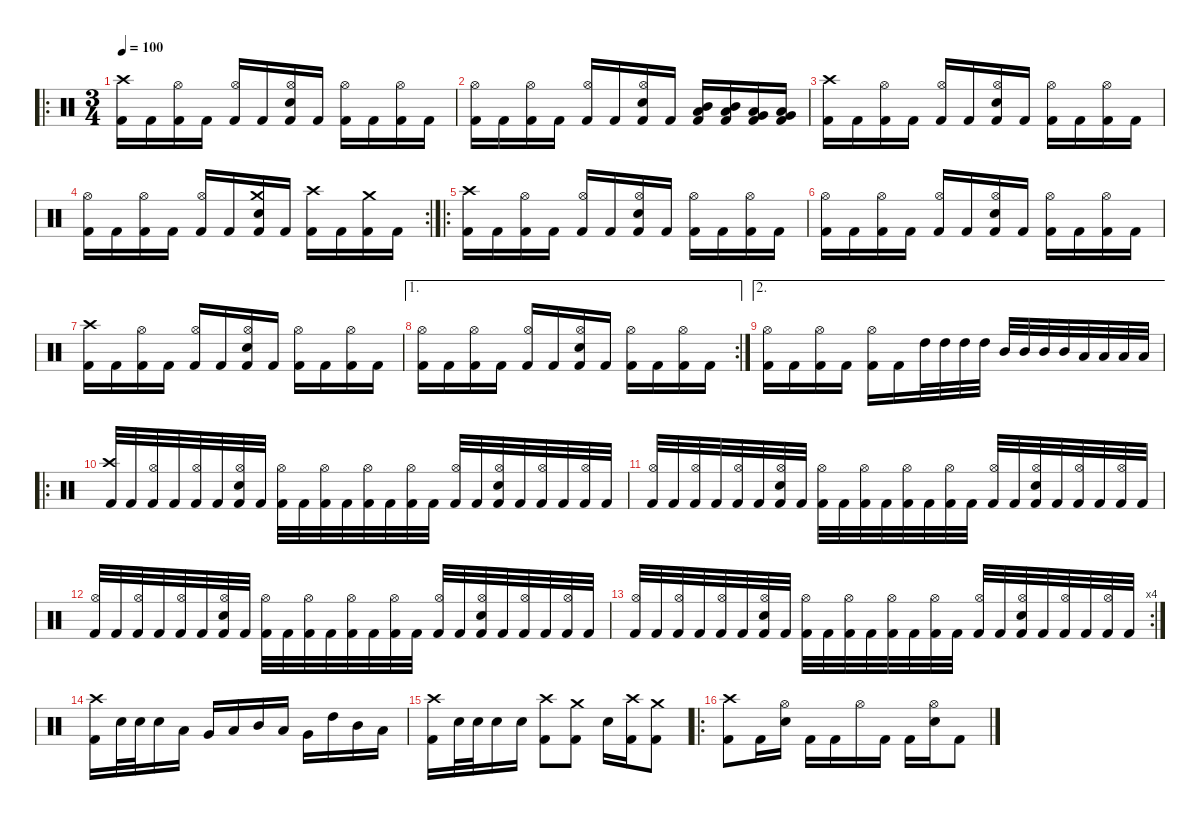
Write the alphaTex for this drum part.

\defaultSystemsLayout 4
\hideDynamics
\bracketExtendMode nobrackets
\singleTrackTrackNamePolicy hidden
\multiTrackTrackNamePolicy hidden
\firstSystemTrackNameMode fullname
\firstSystemTrackNameOrientation horizontal
\otherSystemsTrackNameOrientation horizontal
\track ("Drums" "drm.") {instrument percussion}
\staff {score}
\articulation defaults
\ro
\ts (3 4)
\beaming (8 2 2 2)
\tempo 100
\clef neutral
\ks c
("Crash high (hit)" "Kick (hit) 2").16{dy f beam Down} "Kick (hit) 2".16{beam Down} ("Hi-Hat (open)" "Kick (hit) 2").16{dy mp beam Down} "Kick (hit) 2".16{dy f beam Down} ("Hi-Hat (open)" "Kick (hit) 2").16{dy mp beam Up} "Kick (hit) 2".16{dy f beam Up} ("Hi-Hat (open)" "Snare (hit) 2" "Kick (hit) 2").16{dy mp beam Up} "Kick (hit) 2".16{dy f beam Up} ("Hi-Hat (open)" "Kick (hit) 2").16{dy mp beam Down} "Kick (hit) 2".16{dy f beam Down} ("Hi-Hat (open)" "Kick (hit) 2").16{dy mp beam Down} "Kick (hit) 2".16{dy f beam Down} |
("Hi-Hat (open)" "Kick (hit) 2").16{dy mp beam Down} "Kick (hit) 2".16{dy f beam Down} ("Hi-Hat (open)" "Kick (hit) 2").16{dy mp beam Down} "Kick (hit) 2".16{dy f beam Down} ("Hi-Hat (open)" "Kick (hit) 2").16{dy mp beam Up} "Kick (hit) 2".16{dy f beam Up} ("Hi-Hat (open)" "Snare (hit) 2" "Kick (hit) 2").16{dy mp beam Up} "Kick (hit) 2".16{dy f beam Up} ("Mid Tom (hit)" "Low Tom (hit)" "Kick (hit) 2").16{beam Up} ("Mid Tom (hit)" "Low Tom (hit)" "Kick (hit) 2").16{beam Up} ("Low Tom (hit)" "Very Low Tom (hit)" "Kick (hit) 2").16{beam Up} ("Very Low Tom (hit)" "Low Floor Tom (hit)" "Kick (hit) 2").16{beam Up} |
("Crash high (hit)" "Kick (hit) 2").16{beam Down} "Kick (hit) 2".16{beam Down} ("Hi-Hat (open)" "Kick (hit) 2").16{dy mp beam Down} "Kick (hit) 2".16{dy f beam Down} ("Hi-Hat (open)" "Kick (hit) 2").16{dy mp beam Up} "Kick (hit) 2".16{dy f beam Up} ("Hi-Hat (open)" "Snare (hit) 2" "Kick (hit) 2").16{dy mp beam Up} "Kick (hit) 2".16{dy f beam Up} ("Hi-Hat (open)" "Kick (hit) 2").16{dy mp beam Down} "Kick (hit) 2".16{dy f beam Down} ("Hi-Hat (open)" "Kick (hit) 2").16{dy mp beam Down} "Kick (hit) 2".16{dy f beam Down} |
\rc 2
("Hi-Hat (open)" "Kick (hit) 2").16{dy mp beam Down} "Kick (hit) 2".16{dy f beam Down} ("Hi-Hat (open)" "Kick (hit) 2").16{dy mp beam Down} "Kick (hit) 2".16{dy f beam Down} ("Hi-Hat (open)" "Kick (hit) 2").16{dy mp beam Up} "Kick (hit) 2".16{dy f beam Up} ("Crash medium (hit)" "Snare (hit) 2" "Kick (hit) 2").16{beam Up} "Kick (hit) 2".16{beam Up} ("Crash high (hit)" "Kick (hit) 2").16{beam Down} "Kick (hit) 2".16{beam Down} ("Crash medium (hit)" "Kick (hit) 2").16{beam Down} "Kick (hit) 2".16{beam Down} |
\ro
("Crash high (hit)" "Kick (hit) 2").16{beam Down} "Kick (hit) 2".16{beam Down} ("Hi-Hat (open)" "Kick (hit) 2").16{dy mp beam Down} "Kick (hit) 2".16{dy f beam Down} ("Hi-Hat (open)" "Kick (hit) 2").16{dy mp beam Up} "Kick (hit) 2".16{dy f beam Up} ("Hi-Hat (open)" "Snare (hit) 2" "Kick (hit) 2").16{dy mp beam Up} "Kick (hit) 2".16{dy f beam Up} ("Hi-Hat (open)" "Kick (hit) 2").16{dy mp beam Down} "Kick (hit) 2".16{dy f beam Down} ("Hi-Hat (open)" "Kick (hit) 2").16{dy mp beam Down} "Kick (hit) 2".16{dy f beam Down} |
("Hi-Hat (open)" "Kick (hit) 2").16{dy mp beam Down} "Kick (hit) 2".16{dy f beam Down} ("Hi-Hat (open)" "Kick (hit) 2").16{dy mp beam Down} "Kick (hit) 2".16{dy f beam Down} ("Hi-Hat (open)" "Kick (hit) 2").16{dy mp beam Up} "Kick (hit) 2".16{dy f beam Up} ("Hi-Hat (open)" "Snare (hit) 2" "Kick (hit) 2").16{dy mp beam Up} "Kick (hit) 2".16{dy f beam Up} ("Hi-Hat (open)" "Kick (hit) 2").16{dy mp beam Down} "Kick (hit) 2".16{dy f beam Down} ("Hi-Hat (open)" "Kick (hit) 2").16{dy mp beam Down} "Kick (hit) 2".16{dy f beam Down} |
("Crash high (hit)" "Kick (hit) 2").16{beam Down} "Kick (hit) 2".16{beam Down} ("Hi-Hat (open)" "Kick (hit) 2").16{dy mp beam Down} "Kick (hit) 2".16{dy f beam Down} ("Hi-Hat (open)" "Kick (hit) 2").16{dy mp beam Up} "Kick (hit) 2".16{dy f beam Up} ("Hi-Hat (open)" "Snare (hit) 2" "Kick (hit) 2").16{dy mp beam Up} "Kick (hit) 2".16{dy f beam Up} ("Hi-Hat (open)" "Kick (hit) 2").16{dy mp beam Down} "Kick (hit) 2".16{dy f beam Down} ("Hi-Hat (open)" "Kick (hit) 2").16{dy mp beam Down} "Kick (hit) 2".16{dy f beam Down} |
\ae 1
\rc 2
("Hi-Hat (open)" "Kick (hit) 2").16{dy mp beam Down} "Kick (hit) 2".16{dy f beam Down} ("Hi-Hat (open)" "Kick (hit) 2").16{dy mp beam Down} "Kick (hit) 2".16{dy f beam Down} ("Hi-Hat (open)" "Kick (hit) 2").16{dy mp beam Up} "Kick (hit) 2".16{dy f beam Up} ("Hi-Hat (open)" "Snare (hit) 2" "Kick (hit) 2").16{dy mp beam Up} "Kick (hit) 2".16{dy f beam Up} ("Hi-Hat (open)" "Kick (hit) 2").16{dy mp beam Down} "Kick (hit) 2".16{dy f beam Down} ("Hi-Hat (open)" "Kick (hit) 2").16{dy mp beam Down} "Kick (hit) 2".16{dy f beam Down} |
\ae 2
("Hi-Hat (open)" "Kick (hit) 2").16{dy mp beam Down} "Kick (hit) 2".16{dy f beam Down} ("Hi-Hat (open)" "Kick (hit) 2").16{dy mp beam Down} "Kick (hit) 2".16{dy f beam Down} ("Hi-Hat (open)" "Kick (hit) 2").16{dy mp beam Down} "Kick (hit) 2".16{dy f beam Down} "High Tom (hit)".32{beam Down} "High Tom (hit)".32{dy mf beam Down} "High Tom (hit)".32{dy f beam Down} "High Tom (hit)".32{dy mf beam Down} "Mid Tom (hit)".32{dy f beam Up} "Mid Tom (hit)".32{dy mf beam Up} "Mid Tom (hit)".32{dy f beam Up} "Mid Tom (hit)".32{dy mf beam Up} "Low Tom (hit)".32{dy f beam Up} "Low Tom (hit)".32{dy mf beam Up} "Low Tom (hit)".32{dy f beam Up} "Low Tom (hit)".32{dy mf beam Up} |
\ro
("Crash high (hit)" "Kick (hit) 2").32{dy f beam Up} "Kick (hit) 2".32{beam Up} ("Hi-Hat (open)" "Kick (hit) 2").32{dy mp beam Up} "Kick (hit) 2".32{dy f beam Up} ("Hi-Hat (open)" "Kick (hit) 2").32{dy mp beam Up} "Kick (hit) 2".32{dy f beam Up} ("Hi-Hat (open)" "Snare (hit) 2" "Kick (hit) 2").32{dy mp beam Up} "Kick (hit) 2".32{dy f beam Up} ("Hi-Hat (open)" "Kick (hit) 2").32{dy mp beam Down} "Kick (hit) 2".32{dy f beam Down} ("Hi-Hat (open)" "Kick (hit) 2").32{dy mp beam Down} "Kick (hit) 2".32{dy f beam Down} ("Hi-Hat (open)" "Kick (hit) 2").32{dy mp beam Down} "Kick (hit) 2".32{dy f beam Down} ("Hi-Hat (open)" "Kick (hit) 2").32{dy mp beam Down} "Kick (hit) 2".32{dy f beam Down} ("Hi-Hat (open)" "Kick (hit) 2").32{dy mp beam Up} "Kick (hit) 2".32{dy f beam Up} ("Hi-Hat (open)" "Snare (hit) 2" "Kick (hit) 2").32{dy mp beam Up} "Kick (hit) 2".32{dy f beam Up} ("Hi-Hat (open)" "Kick (hit) 2").32{dy mp beam Up} "Kick (hit) 2".32{dy f beam Up} ("Hi-Hat (open)" "Kick (hit) 2").32{dy mp beam Up} "Kick (hit) 2".32{dy f beam Up} |
("Hi-Hat (open)" "Kick (hit) 2").32{dy mp beam Up} "Kick (hit) 2".32{dy f beam Up} ("Hi-Hat (open)" "Kick (hit) 2").32{dy mp beam Up} "Kick (hit) 2".32{dy f beam Up} ("Hi-Hat (open)" "Kick (hit) 2").32{dy mp beam Up} "Kick (hit) 2".32{dy f beam Up} ("Hi-Hat (open)" "Snare (hit) 2" "Kick (hit) 2").32{dy mp beam Up} "Kick (hit) 2".32{dy f beam Up} ("Hi-Hat (open)" "Kick (hit) 2").32{dy mp beam Down} "Kick (hit) 2".32{dy f beam Down} ("Hi-Hat (open)" "Kick (hit) 2").32{dy mp beam Down} "Kick (hit) 2".32{dy f beam Down} ("Hi-Hat (open)" "Kick (hit) 2").32{dy mp beam Down} "Kick (hit) 2".32{dy f beam Down} ("Hi-Hat (open)" "Kick (hit) 2").32{dy mp beam Down} "Kick (hit) 2".32{dy f beam Down} ("Hi-Hat (open)" "Kick (hit) 2").32{dy mp beam Up} "Kick (hit) 2".32{dy f beam Up} ("Hi-Hat (open)" "Snare (hit) 2" "Kick (hit) 2").32{dy mp beam Up} "Kick (hit) 2".32{dy f beam Up} ("Hi-Hat (open)" "Kick (hit) 2").32{dy mp beam Up} "Kick (hit) 2".32{dy f beam Up} ("Hi-Hat (open)" "Kick (hit) 2").32{dy mp beam Up} "Kick (hit) 2".32{dy f beam Up} |
("Hi-Hat (open)" "Kick (hit) 2").32{dy mp beam Up} "Kick (hit) 2".32{dy f beam Up} ("Hi-Hat (open)" "Kick (hit) 2").32{dy mp beam Up} "Kick (hit) 2".32{dy f beam Up} ("Hi-Hat (open)" "Kick (hit) 2").32{dy mp beam Up} "Kick (hit) 2".32{dy f beam Up} ("Hi-Hat (open)" "Snare (hit) 2" "Kick (hit) 2").32{dy mp beam Up} "Kick (hit) 2".32{dy f beam Up} ("Hi-Hat (open)" "Kick (hit) 2").32{dy mp beam Down} "Kick (hit) 2".32{dy f beam Down} ("Hi-Hat (open)" "Kick (hit) 2").32{dy mp beam Down} "Kick (hit) 2".32{dy f beam Down} ("Hi-Hat (open)" "Kick (hit) 2").32{dy mp beam Down} "Kick (hit) 2".32{dy f beam Down} ("Hi-Hat (open)" "Kick (hit) 2").32{dy mp beam Down} "Kick (hit) 2".32{dy f beam Down} ("Hi-Hat (open)" "Kick (hit) 2").32{dy mp beam Up} "Kick (hit) 2".32{dy f beam Up} ("Hi-Hat (open)" "Snare (hit) 2" "Kick (hit) 2").32{dy mp beam Up} "Kick (hit) 2".32{dy f beam Up} ("Hi-Hat (open)" "Kick (hit) 2").32{dy mp beam Up} "Kick (hit) 2".32{dy f beam Up} ("Hi-Hat (open)" "Kick (hit) 2").32{dy mp beam Up} "Kick (hit) 2".32{dy f beam Up} |
\rc 4
("Hi-Hat (open)" "Kick (hit) 2").32{dy mp beam Up} "Kick (hit) 2".32{dy f beam Up} ("Hi-Hat (open)" "Kick (hit) 2").32{dy mp beam Up} "Kick (hit) 2".32{dy f beam Up} ("Hi-Hat (open)" "Kick (hit) 2").32{dy mp beam Up} "Kick (hit) 2".32{dy f beam Up} ("Hi-Hat (open)" "Snare (hit) 2" "Kick (hit) 2").32{dy mp beam Up} "Kick (hit) 2".32{dy f beam Up} ("Hi-Hat (open)" "Kick (hit) 2").32{dy mp beam Down} "Kick (hit) 2".32{dy f beam Down} ("Hi-Hat (open)" "Kick (hit) 2").32{dy mp beam Down} "Kick (hit) 2".32{dy f beam Down} ("Hi-Hat (open)" "Kick (hit) 2").32{dy mp beam Down} "Kick (hit) 2".32{dy f beam Down} ("Hi-Hat (open)" "Kick (hit) 2").32{dy mp beam Down} "Kick (hit) 2".32{dy f beam Down} ("Hi-Hat (open)" "Kick (hit) 2").32{dy mp beam Up} "Kick (hit) 2".32{dy f beam Up} ("Hi-Hat (open)" "Snare (hit) 2" "Kick (hit) 2").32{dy mp beam Up} "Kick (hit) 2".32{dy f beam Up} ("Hi-Hat (open)" "Kick (hit) 2").32{dy mp beam Up} "Kick (hit) 2".32{dy f beam Up} ("Hi-Hat (open)" "Kick (hit) 2").32{dy mp beam Up} "Kick (hit) 2".32{dy f beam Up} |
("Crash high (hit)" "Kick (hit) 2").16{beam Down} "Snare (hit) 2".32{beam Down} "Snare (hit) 2".32{beam Down} "Snare (hit) 2".16{beam Down} "Low Tom (hit)".16{beam Down} "Very Low Tom (hit)".16{beam Up} "Low Floor Tom (hit)".16{beam Up} "Mid Tom (hit)".16{beam Up} "Low Tom (hit)".16{beam Up} "Very Low Tom (hit)".16{beam Down} "High Tom (hit)".16{beam Down} "Mid Tom (hit)".16{beam Down} "Low Tom (hit)".16{beam Down} |
("Crash high (hit)" "Kick (hit) 2").16{beam Down} "Snare (hit) 2".32{beam Down} "Snare (hit) 2".32{beam Down} "Snare (hit) 2".16{beam Down} "Snare (hit) 2".16{beam Down} ("Crash high (hit)" "Kick (hit) 2").8{beam Down} ("Crash medium (hit)" "Kick (hit) 2").8{beam Down} "Snare (hit) 2".16{beam Down} ("Crash high (hit)" "Kick (hit) 2").16{beam Down} ("Crash medium (hit)" "Kick (hit) 2").8{beam Down} |
\ro
("Crash high (hit)" "Kick (hit) 2").8{beam Down} "Kick (hit) 2".16{dy ff beam Down} ("Hi-Hat (open)" "Snare (hit) 2").16{dy f beam Down} "Kick (hit) 2".16{dy ff beam Down} "Kick (hit) 2".16{beam Down} "Hi-Hat (open)".16{dy f beam Down} "Kick (hit) 2".16{dy ff beam Down} "Kick (hit) 2".16{beam Down} ("Hi-Hat (open)" "Snare (hit) 2").16{dy f beam Down} "Kick (hit) 2".8{dy ff beam Down}
